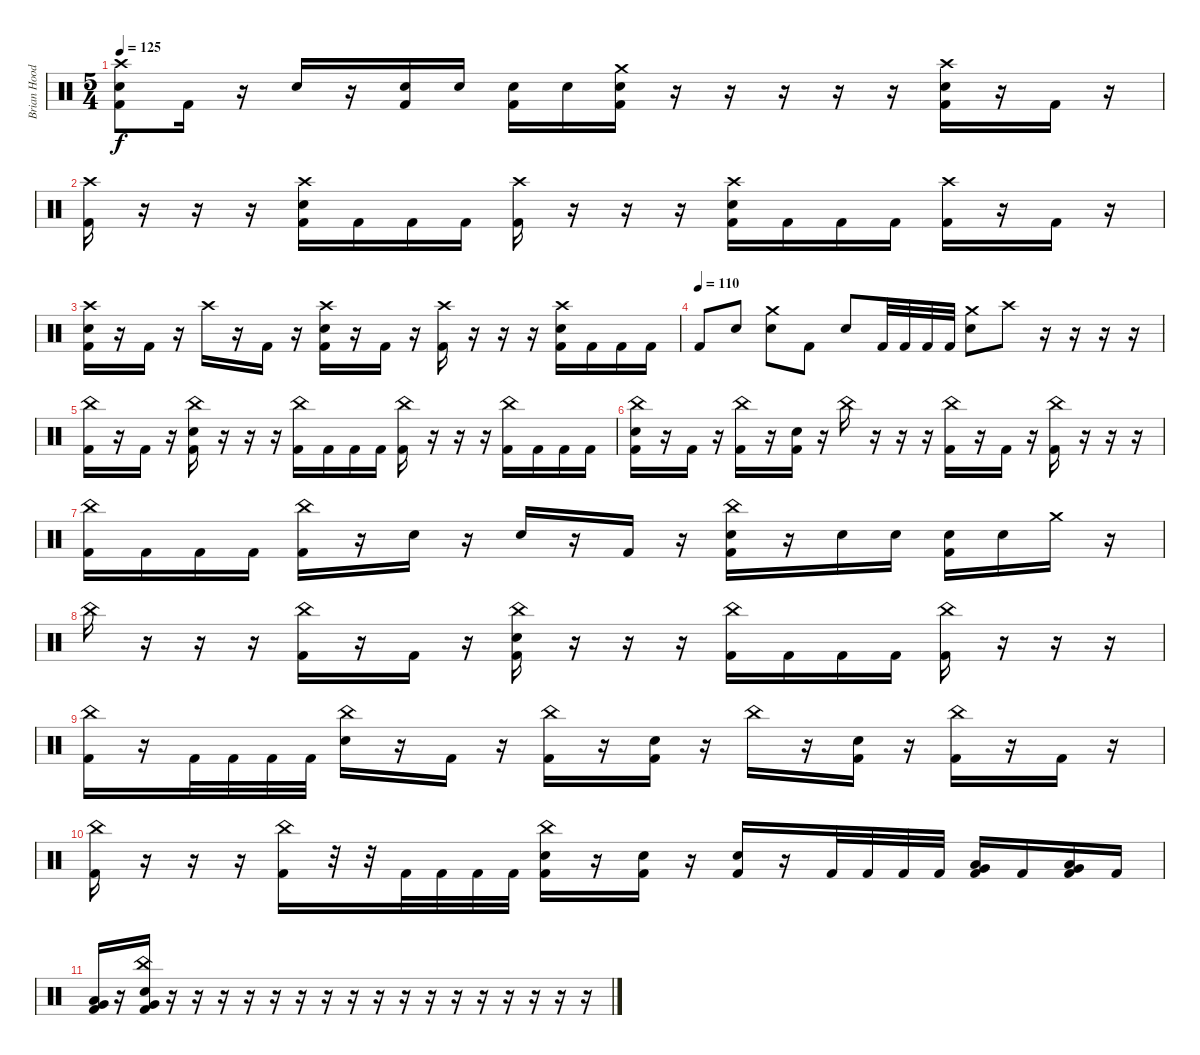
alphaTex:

\track ("Brian Hood " "Brian Hood") {instrument percussion}
\staff {score}
\articulation defaults
\ts (5 4)
\tempo 125
\clef neutral
\ks c
("Kick (hit) 2" "Electric Snare (hit)" "Crash high (hit)").8{dy f} "Kick (hit) 2".16 r.16 "Electric Snare (hit)".16 r.16 ("Kick (hit) 2" "Electric Snare (hit)").16 "Electric Snare (hit)".16 ("Kick (hit) 2" "Electric Snare (hit)").16 "Electric Snare (hit)".16 ("Kick (hit) 2" "Electric Snare (hit)" "Crash medium (hit)").16 r.16 r.16 r.16 r.16 r.16 ("Kick (hit) 2" "Electric Snare (hit)" "Crash high (hit)").16 r.16 "Kick (hit) 2".16 r.16 |
("Kick (hit) 2" "Crash high (hit)").16 r.16 r.16 r.16 ("Kick (hit) 2" "Electric Snare (hit)" "Crash high (hit)").16 "Kick (hit) 2".16 "Kick (hit) 2".16 "Kick (hit) 2".16 ("Kick (hit) 2" "Crash high (hit)").16 r.16 r.16 r.16 ("Kick (hit) 2" "Electric Snare (hit)" "Crash high (hit)").16 "Kick (hit) 2".16 "Kick (hit) 2".16 "Kick (hit) 2".16 ("Kick (hit) 2" "Crash high (hit)").16 r.16 "Kick (hit) 2".16 r.16 |
("Kick (hit) 2" "Electric Snare (hit)" "Crash high (hit)").16 r.16 "Kick (hit) 2".16 r.16 "Crash high (hit)".16 r.16 "Kick (hit) 2".16 r.16 ("Kick (hit) 2" "Electric Snare (hit)" "Crash high (hit)").16 r.16 "Kick (hit) 2".16 r.16 ("Kick (hit) 2" "Crash high (hit)").16 r.16 r.16 r.16 ("Kick (hit) 2" "Electric Snare (hit)" "Crash high (hit)").16 "Kick (hit) 2".16 "Kick (hit) 2".16 "Kick (hit) 2".16 |
\tempo (110)
"Kick (hit) 2".8 "Electric Snare (hit)".8 ("Electric Snare (hit)" "Crash medium (hit)").8 "Kick (hit) 2".8 "Electric Snare (hit)".8 "Kick (hit) 2".32 "Kick (hit) 2".32 "Kick (hit) 2".32 "Kick (hit) 2".32 ("Electric Snare (hit)" "Crash medium (hit)").8 "Crash high (hit)".8 r.16 r.16 r.16 r.16 |
("Kick (hit) 2" "China (hit)").16 r.16 "Kick (hit) 2".16 r.16 ("Kick (hit) 2" "Electric Snare (hit)" "China (hit)").16 r.16 r.16 r.16 ("Kick (hit) 2" "China (hit)").16 "Kick (hit) 2".16 "Kick (hit) 2".16 "Kick (hit) 2".16 ("Kick (hit) 2" "China (hit)").16 r.16 r.16 r.16 ("Kick (hit) 2" "China (hit)").16 "Kick (hit) 2".16 "Kick (hit) 2".16 "Kick (hit) 2".16 |
("Kick (hit) 2" "Electric Snare (hit)" "China (hit)").16 r.16 "Kick (hit) 2".16 r.16 ("Kick (hit) 2" "China (hit)").16 r.16 ("Kick (hit) 2" "Electric Snare (hit)").16 r.16 "China (hit)".16 r.16 r.16 r.16 ("Kick (hit) 2" "China (hit)").16 r.16 "Kick (hit) 2".16 r.16 ("Kick (hit) 2" "China (hit)").16 r.16 r.16 r.16 |
("Kick (hit) 2" "China (hit)").16 "Kick (hit) 2".16 "Kick (hit) 2".16 "Kick (hit) 2".16 ("Kick (hit) 2" "China (hit)").16 r.16 "Electric Snare (hit)".16 r.16 "Electric Snare (hit)".16 r.16 "Kick (hit) 2".16 r.16 ("Kick (hit) 2" "Electric Snare (hit)" "China (hit)").16 r.16 "Electric Snare (hit)".16 "Electric Snare (hit)".16 ("Kick (hit) 2" "Electric Snare (hit)").16 "Electric Snare (hit)".16 "Crash medium (hit)".16 r.16 |
"China (hit)".16 r.16 r.16 r.16 ("Kick (hit) 2" "China (hit)").16 r.16 "Kick (hit) 2".16 r.16 ("Kick (hit) 2" "Electric Snare (hit)" "China (hit)").16 r.16 r.16 r.16 ("Kick (hit) 2" "China (hit)").16 "Kick (hit) 2".16 "Kick (hit) 2".16 "Kick (hit) 2".16 ("Kick (hit) 2" "China (hit)").16 r.16 r.16 r.16 |
("Kick (hit) 2" "China (hit)").16 r.16 "Kick (hit) 2".32 "Kick (hit) 2".32 "Kick (hit) 2".32 "Kick (hit) 2".32 ("Electric Snare (hit)" "China (hit)").16 r.16 "Kick (hit) 2".16 r.16 ("Kick (hit) 2" "China (hit)").16 r.16 ("Kick (hit) 2" "Electric Snare (hit)").16 r.16 "China (hit)".16 r.16 ("Kick (hit) 2" "Electric Snare (hit)").16 r.16 ("Kick (hit) 2" "China (hit)").16 r.16 "Kick (hit) 2".16 r.16 |
("Kick (hit) 2" "China (hit)").16 r.16 r.16 r.16 ("Kick (hit) 2" "China (hit)").16 r.32 r.32 "Kick (hit) 2".32 "Kick (hit) 2".32 "Kick (hit) 2".32 "Kick (hit) 2".32 ("Kick (hit) 2" "Electric Snare (hit)" "China (hit)").16 r.16 ("Kick (hit) 2" "Electric Snare (hit)").16 r.16 ("Kick (hit) 2" "Electric Snare (hit)").16 r.16 "Kick (hit) 2".32 "Kick (hit) 2".32 "Kick (hit) 2".32 "Kick (hit) 2".32 ("Kick (hit) 2" "Low Tom (hit)" "Very Low Tom (hit)").16 "Kick (hit) 2".16 ("Kick (hit) 2" "Low Tom (hit)" "Very Low Tom (hit)").16 "Kick (hit) 2".16 |
("Kick (hit) 2" "Low Tom (hit)" "Very Low Tom (hit)").16 r.16 ("Kick (hit) 2" "Electric Snare (hit)" "Very Low Tom (hit)" "China (hit)").16 r.16 r.16 r.16 r.16 r.16 r.16 r.16 r.16 r.16 r.16 r.16 r.16 r.16 r.16 r.16 r.16 r.16
